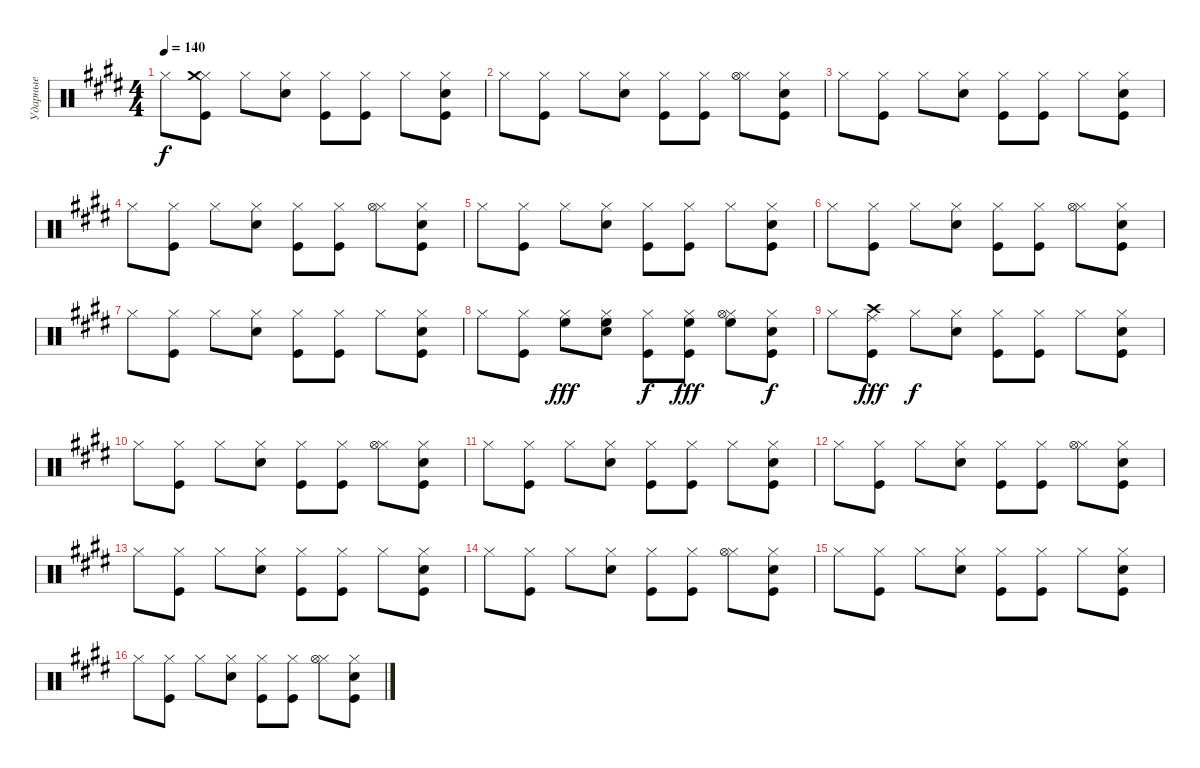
\track ("Ударные" "Ударные") {instrument percussion}
\staff {score}
\articulation defaults
\ts (4 4)
\tempo 140
\clef neutral
\ks c#minor "Hi-Hat (closed)".8{dy f}
("Hi-Hat (closed)" "Crash medium (hit)" "Kick (hit)").8 "Hi-Hat (closed)".8 ("Hi-Hat (closed)" "Snare (hit) 2").8 ("Hi-Hat (closed)" "Kick (hit)").8 ("Hi-Hat (closed)" "Kick (hit)").8 "Hi-Hat (closed)".8 ("Hi-Hat (closed)" "Kick (hit)" "Snare (hit) 2").8 |
"Hi-Hat (closed)".8 ("Hi-Hat (closed)" "Kick (hit)").8 "Hi-Hat (closed)".8 ("Hi-Hat (closed)" "Snare (hit) 2").8 ("Hi-Hat (closed)" "Kick (hit)").8 ("Hi-Hat (closed)" "Kick (hit)").8 ("Hi-Hat (closed)" "Hi-Hat (open)").8 ("Hi-Hat (closed)" "Kick (hit)" "Snare (hit) 2").8 |
"Hi-Hat (closed)".8 ("Hi-Hat (closed)" "Kick (hit)").8 "Hi-Hat (closed)".8 ("Hi-Hat (closed)" "Snare (hit) 2").8 ("Hi-Hat (closed)" "Kick (hit)").8 ("Hi-Hat (closed)" "Kick (hit)").8 "Hi-Hat (closed)".8 ("Hi-Hat (closed)" "Kick (hit)" "Snare (hit) 2").8 |
"Hi-Hat (closed)".8 ("Hi-Hat (closed)" "Kick (hit)").8 "Hi-Hat (closed)".8 ("Hi-Hat (closed)" "Snare (hit) 2").8 ("Hi-Hat (closed)" "Kick (hit)").8 ("Hi-Hat (closed)" "Kick (hit)").8 ("Hi-Hat (closed)" "Hi-Hat (open)").8 ("Hi-Hat (closed)" "Kick (hit)" "Snare (hit) 2").8 |
"Hi-Hat (closed)".8 ("Hi-Hat (closed)" "Kick (hit)").8 "Hi-Hat (closed)".8 ("Hi-Hat (closed)" "Snare (hit) 2").8 ("Hi-Hat (closed)" "Kick (hit)").8 ("Hi-Hat (closed)" "Kick (hit)").8 "Hi-Hat (closed)".8 ("Hi-Hat (closed)" "Kick (hit)" "Snare (hit) 2").8 |
"Hi-Hat (closed)".8 ("Hi-Hat (closed)" "Kick (hit)").8 "Hi-Hat (closed)".8 ("Hi-Hat (closed)" "Snare (hit) 2").8 ("Hi-Hat (closed)" "Kick (hit)").8 ("Hi-Hat (closed)" "Kick (hit)").8 ("Hi-Hat (closed)" "Hi-Hat (open)").8 ("Hi-Hat (closed)" "Kick (hit)" "Snare (hit) 2").8 |
"Hi-Hat (closed)".8 ("Hi-Hat (closed)" "Kick (hit)").8 "Hi-Hat (closed)".8 ("Hi-Hat (closed)" "Snare (hit) 2").8 ("Hi-Hat (closed)" "Kick (hit)").8 ("Hi-Hat (closed)" "Kick (hit)").8 "Hi-Hat (closed)".8 ("Hi-Hat (closed)" "Kick (hit)" "Snare (hit) 2").8 |
"Hi-Hat (closed)".8 ("Hi-Hat (closed)" "Kick (hit)").8 ("Hi-Hat (closed)" "High Floor Tom (hit)").8{dy fff} ("Hi-Hat (closed)" "High Floor Tom (hit)" "Snare (hit) 2").8 ("Hi-Hat (closed)" "Kick (hit)").8{dy f} ("Hi-Hat (closed)" "Kick (hit)" "High Floor Tom (hit)").8{dy fff} ("Hi-Hat (closed)" "Hi-Hat (open)" "High Floor Tom (hit)").8 ("Hi-Hat (closed)" "Kick (hit)" "Snare (hit) 2").8{dy f} |
"Hi-Hat (closed)".8 ("Crash high (hit)" "Kick (hit)" "Ride (middle)").8{dy fff} "Hi-Hat (closed)".8{dy f} ("Hi-Hat (closed)" "Snare (hit) 2").8 ("Hi-Hat (closed)" "Kick (hit)").8 ("Hi-Hat (closed)" "Kick (hit)").8 "Hi-Hat (closed)".8 ("Hi-Hat (closed)" "Kick (hit)" "Snare (hit) 2").8 |
"Hi-Hat (closed)".8 ("Hi-Hat (closed)" "Kick (hit)").8 "Hi-Hat (closed)".8 ("Hi-Hat (closed)" "Snare (hit) 2").8 ("Hi-Hat (closed)" "Kick (hit)").8 ("Hi-Hat (closed)" "Kick (hit)").8 ("Hi-Hat (closed)" "Hi-Hat (open)").8 ("Hi-Hat (closed)" "Kick (hit)" "Snare (hit) 2").8 |
"Hi-Hat (closed)".8 ("Hi-Hat (closed)" "Kick (hit)").8 "Hi-Hat (closed)".8 ("Hi-Hat (closed)" "Snare (hit) 2").8 ("Hi-Hat (closed)" "Kick (hit)").8 ("Hi-Hat (closed)" "Kick (hit)").8 "Hi-Hat (closed)".8 ("Hi-Hat (closed)" "Kick (hit)" "Snare (hit) 2").8 |
"Hi-Hat (closed)".8 ("Hi-Hat (closed)" "Kick (hit)").8 "Hi-Hat (closed)".8 ("Hi-Hat (closed)" "Snare (hit) 2").8 ("Hi-Hat (closed)" "Kick (hit)").8 ("Hi-Hat (closed)" "Kick (hit)").8 ("Hi-Hat (closed)" "Hi-Hat (open)").8 ("Hi-Hat (closed)" "Kick (hit)" "Snare (hit) 2").8 |
"Hi-Hat (closed)".8 ("Hi-Hat (closed)" "Kick (hit)").8 "Hi-Hat (closed)".8 ("Hi-Hat (closed)" "Snare (hit) 2").8 ("Hi-Hat (closed)" "Kick (hit)").8 ("Hi-Hat (closed)" "Kick (hit)").8 "Hi-Hat (closed)".8 ("Hi-Hat (closed)" "Kick (hit)" "Snare (hit) 2").8 |
"Hi-Hat (closed)".8 ("Hi-Hat (closed)" "Kick (hit)").8 "Hi-Hat (closed)".8 ("Hi-Hat (closed)" "Snare (hit) 2").8 ("Hi-Hat (closed)" "Kick (hit)").8 ("Hi-Hat (closed)" "Kick (hit)").8 ("Hi-Hat (closed)" "Hi-Hat (open)").8 ("Hi-Hat (closed)" "Kick (hit)" "Snare (hit) 2").8 |
"Hi-Hat (closed)".8 ("Hi-Hat (closed)" "Kick (hit)").8 "Hi-Hat (closed)".8 ("Hi-Hat (closed)" "Snare (hit) 2").8 ("Hi-Hat (closed)" "Kick (hit)").8 ("Hi-Hat (closed)" "Kick (hit)").8 "Hi-Hat (closed)".8 ("Hi-Hat (closed)" "Kick (hit)" "Snare (hit) 2").8 |
"Hi-Hat (closed)".8 ("Hi-Hat (closed)" "Kick (hit)").8 "Hi-Hat (closed)".8 ("Hi-Hat (closed)" "Snare (hit) 2").8 ("Hi-Hat (closed)" "Kick (hit)").8 ("Hi-Hat (closed)" "Kick (hit)").8 ("Hi-Hat (closed)" "Hi-Hat (open)").8 ("Hi-Hat (closed)" "Kick (hit)" "Snare (hit) 2").8
